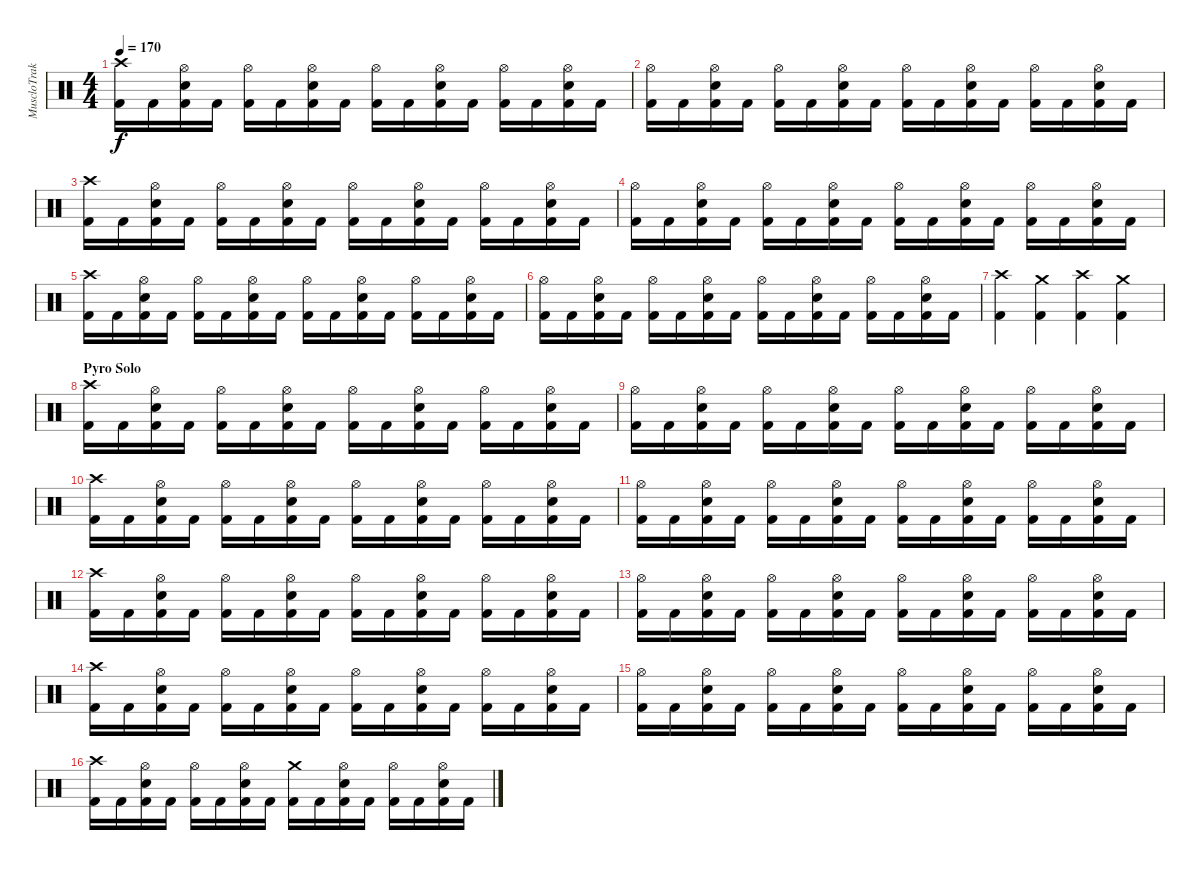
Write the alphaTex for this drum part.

\track ("MuscloTraktor" "MuscloTrak") {instrument percussion}
\staff {score}
\articulation defaults
\ts (4 4)
\tempo 170
\clef neutral
\ks c
("Kick (hit) 2" "Crash high (hit)").16{dy f} "Kick (hit) 2".16 ("Kick (hit) 2" "Electric Snare (hit)" "Hi-Hat (open)").16 "Kick (hit) 2".16 ("Kick (hit) 2" "Hi-Hat (open)").16 "Kick (hit) 2".16 ("Kick (hit) 2" "Electric Snare (hit)" "Hi-Hat (open)").16 "Kick (hit) 2".16 ("Kick (hit) 2" "Hi-Hat (open)").16 "Kick (hit) 2".16 ("Kick (hit) 2" "Electric Snare (hit)" "Hi-Hat (open)").16 "Kick (hit) 2".16 ("Kick (hit) 2" "Hi-Hat (open)").16 "Kick (hit) 2".16 ("Kick (hit) 2" "Electric Snare (hit)" "Hi-Hat (open)").16 "Kick (hit) 2".16 |
("Kick (hit) 2" "Hi-Hat (open)").16 "Kick (hit) 2".16 ("Kick (hit) 2" "Electric Snare (hit)" "Hi-Hat (open)").16 "Kick (hit) 2".16 ("Kick (hit) 2" "Hi-Hat (open)").16 "Kick (hit) 2".16 ("Kick (hit) 2" "Electric Snare (hit)" "Hi-Hat (open)").16 "Kick (hit) 2".16 ("Kick (hit) 2" "Hi-Hat (open)").16 "Kick (hit) 2".16 ("Kick (hit) 2" "Electric Snare (hit)" "Hi-Hat (open)").16 "Kick (hit) 2".16 ("Kick (hit) 2" "Hi-Hat (open)").16 "Kick (hit) 2".16 ("Kick (hit) 2" "Electric Snare (hit)" "Hi-Hat (open)").16 "Kick (hit) 2".16 |
("Kick (hit) 2" "Crash high (hit)").16 "Kick (hit) 2".16 ("Kick (hit) 2" "Electric Snare (hit)" "Hi-Hat (open)").16 "Kick (hit) 2".16 ("Kick (hit) 2" "Hi-Hat (open)").16 "Kick (hit) 2".16 ("Kick (hit) 2" "Electric Snare (hit)" "Hi-Hat (open)").16 "Kick (hit) 2".16 ("Kick (hit) 2" "Hi-Hat (open)").16 "Kick (hit) 2".16 ("Kick (hit) 2" "Electric Snare (hit)" "Hi-Hat (open)").16 "Kick (hit) 2".16 ("Kick (hit) 2" "Hi-Hat (open)").16 "Kick (hit) 2".16 ("Kick (hit) 2" "Electric Snare (hit)" "Hi-Hat (open)").16 "Kick (hit) 2".16 |
("Kick (hit) 2" "Hi-Hat (open)").16 "Kick (hit) 2".16 ("Kick (hit) 2" "Electric Snare (hit)" "Hi-Hat (open)").16 "Kick (hit) 2".16 ("Kick (hit) 2" "Hi-Hat (open)").16 "Kick (hit) 2".16 ("Kick (hit) 2" "Electric Snare (hit)" "Hi-Hat (open)").16 "Kick (hit) 2".16 ("Kick (hit) 2" "Hi-Hat (open)").16 "Kick (hit) 2".16 ("Kick (hit) 2" "Electric Snare (hit)" "Hi-Hat (open)").16 "Kick (hit) 2".16 ("Kick (hit) 2" "Hi-Hat (open)").16 "Kick (hit) 2".16 ("Kick (hit) 2" "Electric Snare (hit)" "Hi-Hat (open)").16 "Kick (hit) 2".16 |
("Kick (hit) 2" "Crash high (hit)").16 "Kick (hit) 2".16 ("Kick (hit) 2" "Electric Snare (hit)" "Hi-Hat (open)").16 "Kick (hit) 2".16 ("Kick (hit) 2" "Hi-Hat (open)").16 "Kick (hit) 2".16 ("Kick (hit) 2" "Electric Snare (hit)" "Hi-Hat (open)").16 "Kick (hit) 2".16 ("Kick (hit) 2" "Hi-Hat (open)").16 "Kick (hit) 2".16 ("Kick (hit) 2" "Electric Snare (hit)" "Hi-Hat (open)").16 "Kick (hit) 2".16 ("Kick (hit) 2" "Hi-Hat (open)").16 "Kick (hit) 2".16 ("Kick (hit) 2" "Electric Snare (hit)" "Hi-Hat (open)").16 "Kick (hit) 2".16 |
("Kick (hit) 2" "Hi-Hat (open)").16 "Kick (hit) 2".16 ("Kick (hit) 2" "Electric Snare (hit)" "Hi-Hat (open)").16 "Kick (hit) 2".16 ("Kick (hit) 2" "Hi-Hat (open)").16 "Kick (hit) 2".16 ("Kick (hit) 2" "Electric Snare (hit)" "Hi-Hat (open)").16 "Kick (hit) 2".16 ("Kick (hit) 2" "Hi-Hat (open)").16 "Kick (hit) 2".16 ("Kick (hit) 2" "Electric Snare (hit)" "Hi-Hat (open)").16 "Kick (hit) 2".16 ("Kick (hit) 2" "Hi-Hat (open)").16 "Kick (hit) 2".16 ("Kick (hit) 2" "Electric Snare (hit)" "Hi-Hat (open)").16 "Kick (hit) 2".16 |
("Kick (hit) 2" "Crash high (hit)").4 ("Kick (hit) 2" "Crash medium (hit)").4 ("Kick (hit) 2" "Crash high (hit)").4 ("Kick (hit) 2" "Crash medium (hit)").4 |
\section ("" "Pyro Solo")
("Kick (hit) 2" "Crash high (hit)").16 "Kick (hit) 2".16 ("Kick (hit) 2" "Electric Snare (hit)" "Hi-Hat (open)").16 "Kick (hit) 2".16 ("Kick (hit) 2" "Hi-Hat (open)").16 "Kick (hit) 2".16 ("Kick (hit) 2" "Electric Snare (hit)" "Hi-Hat (open)").16 "Kick (hit) 2".16 ("Kick (hit) 2" "Hi-Hat (open)").16 "Kick (hit) 2".16 ("Kick (hit) 2" "Electric Snare (hit)" "Hi-Hat (open)").16 "Kick (hit) 2".16 ("Kick (hit) 2" "Hi-Hat (open)").16 "Kick (hit) 2".16 ("Kick (hit) 2" "Electric Snare (hit)" "Hi-Hat (open)").16 "Kick (hit) 2".16 |
("Kick (hit) 2" "Hi-Hat (open)").16 "Kick (hit) 2".16 ("Kick (hit) 2" "Electric Snare (hit)" "Hi-Hat (open)").16 "Kick (hit) 2".16 ("Kick (hit) 2" "Hi-Hat (open)").16 "Kick (hit) 2".16 ("Kick (hit) 2" "Electric Snare (hit)" "Hi-Hat (open)").16 "Kick (hit) 2".16 ("Kick (hit) 2" "Hi-Hat (open)").16 "Kick (hit) 2".16 ("Kick (hit) 2" "Electric Snare (hit)" "Hi-Hat (open)").16 "Kick (hit) 2".16 ("Kick (hit) 2" "Hi-Hat (open)").16 "Kick (hit) 2".16 ("Kick (hit) 2" "Electric Snare (hit)" "Hi-Hat (open)").16 "Kick (hit) 2".16 |
("Kick (hit) 2" "Crash high (hit)").16 "Kick (hit) 2".16 ("Kick (hit) 2" "Electric Snare (hit)" "Hi-Hat (open)").16 "Kick (hit) 2".16 ("Kick (hit) 2" "Hi-Hat (open)").16 "Kick (hit) 2".16 ("Kick (hit) 2" "Electric Snare (hit)" "Hi-Hat (open)").16 "Kick (hit) 2".16 ("Kick (hit) 2" "Hi-Hat (open)").16 "Kick (hit) 2".16 ("Kick (hit) 2" "Electric Snare (hit)" "Hi-Hat (open)").16 "Kick (hit) 2".16 ("Kick (hit) 2" "Hi-Hat (open)").16 "Kick (hit) 2".16 ("Kick (hit) 2" "Electric Snare (hit)" "Hi-Hat (open)").16 "Kick (hit) 2".16 |
("Kick (hit) 2" "Hi-Hat (open)").16 "Kick (hit) 2".16 ("Kick (hit) 2" "Electric Snare (hit)" "Hi-Hat (open)").16 "Kick (hit) 2".16 ("Kick (hit) 2" "Hi-Hat (open)").16 "Kick (hit) 2".16 ("Kick (hit) 2" "Electric Snare (hit)" "Hi-Hat (open)").16 "Kick (hit) 2".16 ("Kick (hit) 2" "Hi-Hat (open)").16 "Kick (hit) 2".16 ("Kick (hit) 2" "Electric Snare (hit)" "Hi-Hat (open)").16 "Kick (hit) 2".16 ("Kick (hit) 2" "Hi-Hat (open)").16 "Kick (hit) 2".16 ("Kick (hit) 2" "Electric Snare (hit)" "Hi-Hat (open)").16 "Kick (hit) 2".16 |
("Kick (hit) 2" "Crash high (hit)").16 "Kick (hit) 2".16 ("Kick (hit) 2" "Electric Snare (hit)" "Hi-Hat (open)").16 "Kick (hit) 2".16 ("Kick (hit) 2" "Hi-Hat (open)").16 "Kick (hit) 2".16 ("Kick (hit) 2" "Electric Snare (hit)" "Hi-Hat (open)").16 "Kick (hit) 2".16 ("Kick (hit) 2" "Hi-Hat (open)").16 "Kick (hit) 2".16 ("Kick (hit) 2" "Electric Snare (hit)" "Hi-Hat (open)").16 "Kick (hit) 2".16 ("Kick (hit) 2" "Hi-Hat (open)").16 "Kick (hit) 2".16 ("Kick (hit) 2" "Electric Snare (hit)" "Hi-Hat (open)").16 "Kick (hit) 2".16 |
("Kick (hit) 2" "Hi-Hat (open)").16 "Kick (hit) 2".16 ("Kick (hit) 2" "Electric Snare (hit)" "Hi-Hat (open)").16 "Kick (hit) 2".16 ("Kick (hit) 2" "Hi-Hat (open)").16 "Kick (hit) 2".16 ("Kick (hit) 2" "Electric Snare (hit)" "Hi-Hat (open)").16 "Kick (hit) 2".16 ("Kick (hit) 2" "Hi-Hat (open)").16 "Kick (hit) 2".16 ("Kick (hit) 2" "Electric Snare (hit)" "Hi-Hat (open)").16 "Kick (hit) 2".16 ("Kick (hit) 2" "Hi-Hat (open)").16 "Kick (hit) 2".16 ("Kick (hit) 2" "Electric Snare (hit)" "Hi-Hat (open)").16 "Kick (hit) 2".16 |
("Kick (hit) 2" "Crash high (hit)").16 "Kick (hit) 2".16 ("Kick (hit) 2" "Electric Snare (hit)" "Hi-Hat (open)").16 "Kick (hit) 2".16 ("Kick (hit) 2" "Hi-Hat (open)").16 "Kick (hit) 2".16 ("Kick (hit) 2" "Electric Snare (hit)" "Hi-Hat (open)").16 "Kick (hit) 2".16 ("Kick (hit) 2" "Hi-Hat (open)").16 "Kick (hit) 2".16 ("Kick (hit) 2" "Electric Snare (hit)" "Hi-Hat (open)").16 "Kick (hit) 2".16 ("Kick (hit) 2" "Hi-Hat (open)").16 "Kick (hit) 2".16 ("Kick (hit) 2" "Electric Snare (hit)" "Hi-Hat (open)").16 "Kick (hit) 2".16 |
("Kick (hit) 2" "Hi-Hat (open)").16 "Kick (hit) 2".16 ("Kick (hit) 2" "Electric Snare (hit)" "Hi-Hat (open)").16 "Kick (hit) 2".16 ("Kick (hit) 2" "Hi-Hat (open)").16 "Kick (hit) 2".16 ("Kick (hit) 2" "Electric Snare (hit)" "Hi-Hat (open)").16 "Kick (hit) 2".16 ("Kick (hit) 2" "Hi-Hat (open)").16 "Kick (hit) 2".16 ("Kick (hit) 2" "Electric Snare (hit)" "Hi-Hat (open)").16 "Kick (hit) 2".16 ("Kick (hit) 2" "Hi-Hat (open)").16 "Kick (hit) 2".16 ("Kick (hit) 2" "Electric Snare (hit)" "Hi-Hat (open)").16 "Kick (hit) 2".16 |
("Kick (hit) 2" "Crash high (hit)").16 "Kick (hit) 2".16 ("Kick (hit) 2" "Electric Snare (hit)" "Hi-Hat (open)").16 "Kick (hit) 2".16 ("Kick (hit) 2" "Hi-Hat (open)").16 "Kick (hit) 2".16 ("Kick (hit) 2" "Electric Snare (hit)" "Hi-Hat (open)").16 "Kick (hit) 2".16 ("Kick (hit) 2" "Crash medium (hit)").16 "Kick (hit) 2".16 ("Kick (hit) 2" "Electric Snare (hit)" "Hi-Hat (open)").16 "Kick (hit) 2".16 ("Kick (hit) 2" "Hi-Hat (open)").16 "Kick (hit) 2".16 ("Kick (hit) 2" "Electric Snare (hit)" "Hi-Hat (open)").16 "Kick (hit) 2".16
